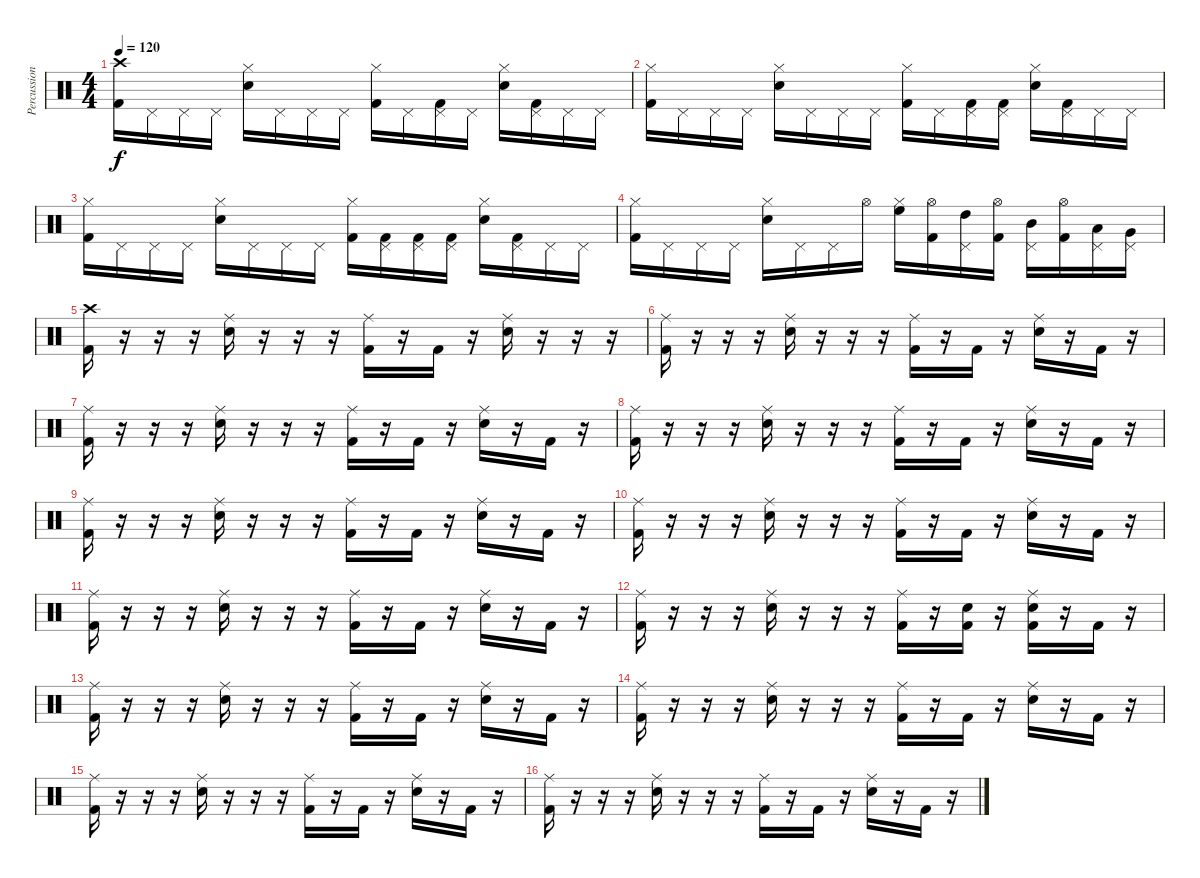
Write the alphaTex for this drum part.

\track ("Percussion" "Percussion") {instrument percussion}
\staff {score}
\articulation defaults
\ts (4 4)
\tempo 120
\clef neutral
\ks c
("Crash high (hit)" "Kick (hit) 2").16{dy f} "Pedal Hi-Hat (hit)".16 "Pedal Hi-Hat (hit)".16 "Pedal Hi-Hat (hit)".16 ("Hi-Hat (closed)" "Electric Snare (hit)").16 "Pedal Hi-Hat (hit)".16 "Pedal Hi-Hat (hit)".16 "Pedal Hi-Hat (hit)".16 ("Hi-Hat (closed)" "Kick (hit) 2").16 "Pedal Hi-Hat (hit)".16 ("Pedal Hi-Hat (hit)" "Kick (hit) 2").16 "Pedal Hi-Hat (hit)".16 ("Hi-Hat (closed)" "Electric Snare (hit)").16 ("Pedal Hi-Hat (hit)" "Kick (hit) 2").16 "Pedal Hi-Hat (hit)".16 "Pedal Hi-Hat (hit)".16 |
("Hi-Hat (closed)" "Kick (hit) 2").16 "Pedal Hi-Hat (hit)".16 "Pedal Hi-Hat (hit)".16 "Pedal Hi-Hat (hit)".16 ("Hi-Hat (closed)" "Electric Snare (hit)").16 "Pedal Hi-Hat (hit)".16 "Pedal Hi-Hat (hit)".16 "Pedal Hi-Hat (hit)".16 ("Hi-Hat (closed)" "Kick (hit) 2").16 "Pedal Hi-Hat (hit)".16 ("Pedal Hi-Hat (hit)" "Kick (hit) 2").16 ("Pedal Hi-Hat (hit)" "Kick (hit) 2").16 ("Hi-Hat (closed)" "Electric Snare (hit)").16 ("Pedal Hi-Hat (hit)" "Kick (hit) 2").16 "Pedal Hi-Hat (hit)".16 "Pedal Hi-Hat (hit)".16 |
("Hi-Hat (closed)" "Kick (hit) 2").16 "Pedal Hi-Hat (hit)".16 "Pedal Hi-Hat (hit)".16 "Pedal Hi-Hat (hit)".16 ("Hi-Hat (closed)" "Electric Snare (hit)").16 "Pedal Hi-Hat (hit)".16 "Pedal Hi-Hat (hit)".16 "Pedal Hi-Hat (hit)".16 ("Hi-Hat (closed)" "Kick (hit) 2").16 ("Pedal Hi-Hat (hit)" "Kick (hit) 2").16 ("Pedal Hi-Hat (hit)" "Kick (hit) 2").16 ("Pedal Hi-Hat (hit)" "Kick (hit) 2").16 ("Hi-Hat (closed)" "Electric Snare (hit)").16 ("Pedal Hi-Hat (hit)" "Kick (hit) 2").16 "Pedal Hi-Hat (hit)".16 "Pedal Hi-Hat (hit)".16 |
("Hi-Hat (closed)" "Kick (hit) 2").16 "Pedal Hi-Hat (hit)".16 "Pedal Hi-Hat (hit)".16 "Pedal Hi-Hat (hit)".16 ("Hi-Hat (closed)" "Electric Snare (hit)").16 "Pedal Hi-Hat (hit)".16 "Pedal Hi-Hat (hit)".16 "Hi-Hat (open)".16 ("Hi-Hat (closed)" "High Floor Tom (hit)").16 ("Hi-Hat (open)" "Kick (hit) 2").16 ("Pedal Hi-Hat (hit)" "High Tom (hit)").16 ("Hi-Hat (open)" "Kick (hit) 2").16 ("Pedal Hi-Hat (hit)" "Mid Tom (hit)").16 ("Hi-Hat (open)" "Kick (hit) 2").16 ("Pedal Hi-Hat (hit)" "Low Tom (hit)").16 ("Pedal Hi-Hat (hit)" "Very Low Tom (hit)").16 |
("Crash high (hit)" "Kick (hit) 2").16 r.16 r.16 r.16 ("Ride (middle)" "Electric Snare (hit)").16 r.16 r.16 r.16 ("Ride (middle)" "Kick (hit) 2").16 r.16 "Kick (hit) 2".16 r.16 ("Ride (middle)" "Electric Snare (hit)").16 r.16 r.16 r.16 |
("Ride (middle)" "Kick (hit) 2").16 r.16 r.16 r.16 ("Ride (middle)" "Electric Snare (hit)").16 r.16 r.16 r.16 ("Ride (middle)" "Kick (hit) 2").16 r.16 "Kick (hit) 2".16 r.16 ("Ride (middle)" "Electric Snare (hit)").16 r.16 "Kick (hit) 2".16 r.16 |
("Ride (middle)" "Kick (hit) 2").16 r.16 r.16 r.16 ("Ride (middle)" "Electric Snare (hit)").16 r.16 r.16 r.16 ("Ride (middle)" "Kick (hit) 2").16 r.16 "Kick (hit) 2".16 r.16 ("Ride (middle)" "Electric Snare (hit)").16 r.16 "Kick (hit) 2".16 r.16 |
("Ride (middle)" "Kick (hit) 2").16 r.16 r.16 r.16 ("Ride (middle)" "Electric Snare (hit)").16 r.16 r.16 r.16 ("Ride (middle)" "Kick (hit) 2").16 r.16 "Kick (hit) 2".16 r.16 ("Ride (middle)" "Electric Snare (hit)").16 r.16 "Kick (hit) 2".16 r.16 |
("Ride (middle)" "Kick (hit) 2").16 r.16 r.16 r.16 ("Ride (middle)" "Electric Snare (hit)").16 r.16 r.16 r.16 ("Ride (middle)" "Kick (hit) 2").16 r.16 "Kick (hit) 2".16 r.16 ("Ride (middle)" "Electric Snare (hit)").16 r.16 "Kick (hit) 2".16 r.16 |
("Ride (middle)" "Kick (hit) 2").16 r.16 r.16 r.16 ("Ride (middle)" "Electric Snare (hit)").16 r.16 r.16 r.16 ("Ride (middle)" "Kick (hit) 2").16 r.16 "Kick (hit) 2".16 r.16 ("Ride (middle)" "Electric Snare (hit)").16 r.16 "Kick (hit) 2".16 r.16 |
("Ride (middle)" "Kick (hit) 2").16 r.16 r.16 r.16 ("Ride (middle)" "Electric Snare (hit)").16 r.16 r.16 r.16 ("Ride (middle)" "Kick (hit) 2").16 r.16 "Kick (hit) 2".16 r.16 ("Ride (middle)" "Electric Snare (hit)").16 r.16 "Kick (hit) 2".16 r.16 |
("Ride (middle)" "Kick (hit) 2").16 r.16 r.16 r.16 ("Ride (middle)" "Electric Snare (hit)").16 r.16 r.16 r.16 ("Ride (middle)" "Kick (hit) 2").16 r.16 ("Electric Snare (hit)" "Kick (hit) 2").16 r.16 ("Ride (middle)" "Electric Snare (hit)" "Kick (hit) 2").16 r.16 "Kick (hit) 2".16 r.16 |
("Ride (middle)" "Kick (hit) 2").16 r.16 r.16 r.16 ("Ride (middle)" "Electric Snare (hit)").16 r.16 r.16 r.16 ("Ride (middle)" "Kick (hit) 2").16 r.16 "Kick (hit) 2".16 r.16 ("Ride (middle)" "Electric Snare (hit)").16 r.16 "Kick (hit) 2".16 r.16 |
("Ride (middle)" "Kick (hit) 2").16 r.16 r.16 r.16 ("Ride (middle)" "Electric Snare (hit)").16 r.16 r.16 r.16 ("Ride (middle)" "Kick (hit) 2").16 r.16 "Kick (hit) 2".16 r.16 ("Ride (middle)" "Electric Snare (hit)").16 r.16 "Kick (hit) 2".16 r.16 |
("Ride (middle)" "Kick (hit) 2").16 r.16 r.16 r.16 ("Ride (middle)" "Electric Snare (hit)").16 r.16 r.16 r.16 ("Ride (middle)" "Kick (hit) 2").16 r.16 "Kick (hit) 2".16 r.16 ("Ride (middle)" "Electric Snare (hit)").16 r.16 "Kick (hit) 2".16 r.16 |
("Ride (middle)" "Kick (hit) 2").16 r.16 r.16 r.16 ("Ride (middle)" "Electric Snare (hit)").16 r.16 r.16 r.16 ("Ride (middle)" "Kick (hit) 2").16 r.16 "Kick (hit) 2".16 r.16 ("Ride (middle)" "Electric Snare (hit)").16 r.16 "Kick (hit) 2".16 r.16
